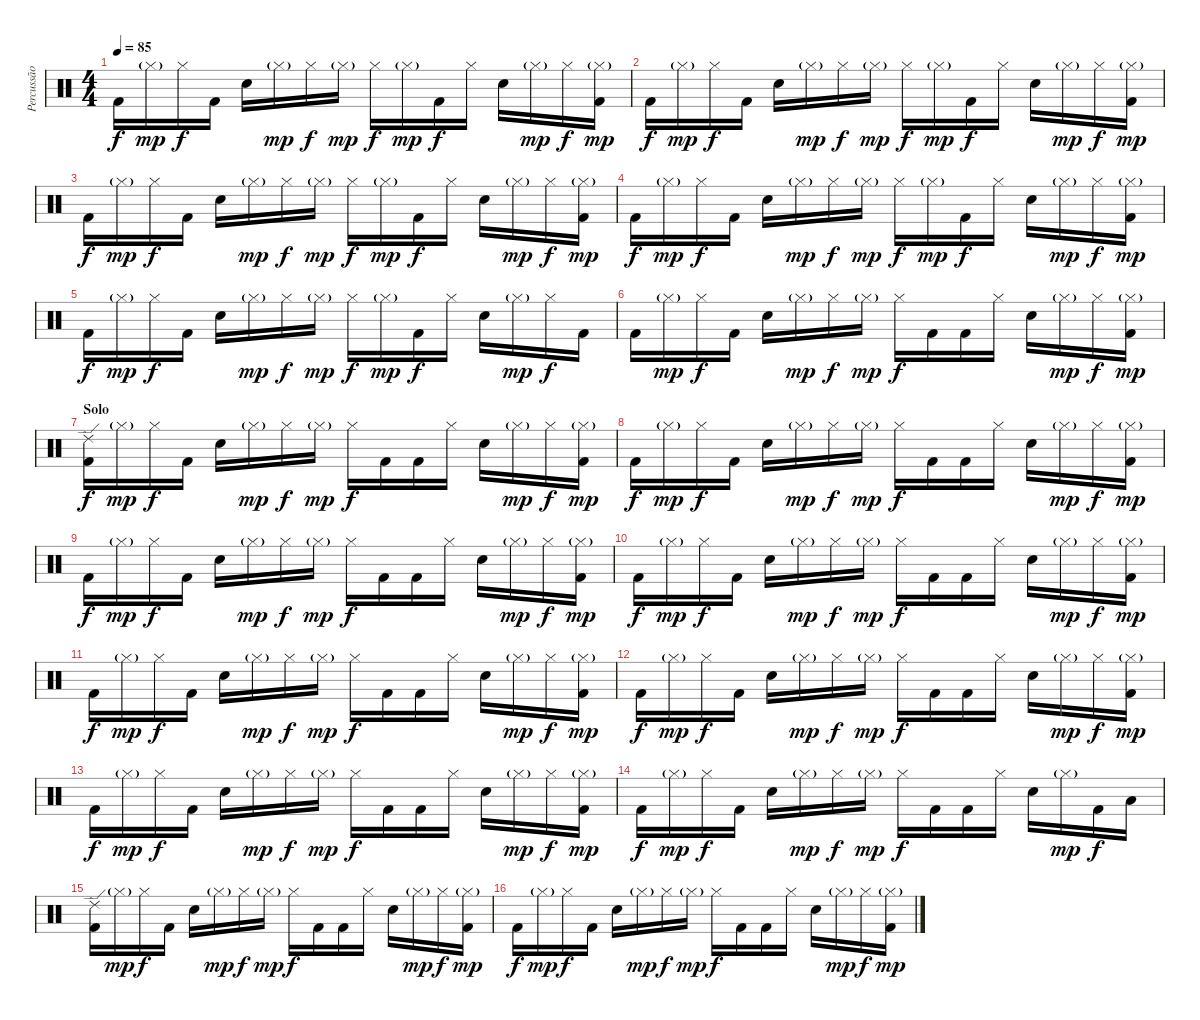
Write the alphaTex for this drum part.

\track ("Percussão" "Percussão") {instrument percussion}
\staff {score}
\articulation defaults
\ts (4 4)
\tempo 85
\clef neutral
\ks c "Kick (hit) 2".16{dy f} "Hi-Hat (closed)"{g}.16{dy mp} "Hi-Hat (closed)".16{dy f} "Kick (hit) 2".16 "Electric Snare (hit)".16 "Hi-Hat (closed)"{g}.16{dy mp} "Hi-Hat (closed)".16{dy f} "Hi-Hat (closed)"{g}.16{dy mp} "Hi-Hat (closed)".16{dy f} "Hi-Hat (closed)"{g}.16{dy mp} "Kick (hit) 2".16{dy f} "Hi-Hat (closed)".16 "Electric Snare (hit)".16 "Hi-Hat (closed)"{g}.16{dy mp} "Hi-Hat (closed)".16{dy f}
("Hi-Hat (closed)"{g} "Kick (hit) 2").16{dy mp} |
"Kick (hit) 2".16{dy f} "Hi-Hat (closed)"{g}.16{dy mp} "Hi-Hat (closed)".16{dy f} "Kick (hit) 2".16 "Electric Snare (hit)".16 "Hi-Hat (closed)"{g}.16{dy mp} "Hi-Hat (closed)".16{dy f} "Hi-Hat (closed)"{g}.16{dy mp} "Hi-Hat (closed)".16{dy f} "Hi-Hat (closed)"{g}.16{dy mp} "Kick (hit) 2".16{dy f} "Hi-Hat (closed)".16 "Electric Snare (hit)".16 "Hi-Hat (closed)"{g}.16{dy mp} "Hi-Hat (closed)".16{dy f} ("Hi-Hat (closed)"{g} "Kick (hit) 2").16{dy mp} |
"Kick (hit) 2".16{dy f} "Hi-Hat (closed)"{g}.16{dy mp} "Hi-Hat (closed)".16{dy f} "Kick (hit) 2".16 "Electric Snare (hit)".16 "Hi-Hat (closed)"{g}.16{dy mp} "Hi-Hat (closed)".16{dy f} "Hi-Hat (closed)"{g}.16{dy mp} "Hi-Hat (closed)".16{dy f} "Hi-Hat (closed)"{g}.16{dy mp} "Kick (hit) 2".16{dy f} "Hi-Hat (closed)".16 "Electric Snare (hit)".16 "Hi-Hat (closed)"{g}.16{dy mp} "Hi-Hat (closed)".16{dy f} ("Hi-Hat (closed)"{g} "Kick (hit) 2").16{dy mp} |
"Kick (hit) 2".16{dy f} "Hi-Hat (closed)"{g}.16{dy mp} "Hi-Hat (closed)".16{dy f} "Kick (hit) 2".16 "Electric Snare (hit)".16 "Hi-Hat (closed)"{g}.16{dy mp} "Hi-Hat (closed)".16{dy f} "Hi-Hat (closed)"{g}.16{dy mp} "Hi-Hat (closed)".16{dy f} "Hi-Hat (closed)"{g}.16{dy mp} "Kick (hit) 2".16{dy f} "Hi-Hat (closed)".16 "Electric Snare (hit)".16 "Hi-Hat (closed)"{g}.16{dy mp} "Hi-Hat (closed)".16{dy f} ("Hi-Hat (closed)"{g} "Kick (hit) 2").16{dy mp} |
"Kick (hit) 2".16{dy f} "Hi-Hat (closed)"{g}.16{dy mp} "Hi-Hat (closed)".16{dy f} "Kick (hit) 2".16 "Electric Snare (hit)".16 "Hi-Hat (closed)"{g}.16{dy mp} "Hi-Hat (closed)".16{dy f} "Hi-Hat (closed)"{g}.16{dy mp} "Hi-Hat (closed)".16{dy f} "Hi-Hat (closed)"{g}.16{dy mp} "Kick (hit) 2".16{dy f} "Hi-Hat (closed)".16 "Electric Snare (hit)".16 "Hi-Hat (closed)"{g}.16{dy mp} "Hi-Hat (closed)".16{dy f} "Kick (hit) 2".16 |
"Kick (hit) 2".16 "Hi-Hat (closed)"{g}.16{dy mp} "Hi-Hat (closed)".16{dy f} "Kick (hit) 2".16 "Electric Snare (hit)".16 "Hi-Hat (closed)"{g}.16{dy mp} "Hi-Hat (closed)".16{dy f} "Hi-Hat (closed)"{g}.16{dy mp} "Hi-Hat (closed)".16{dy f} "Kick (hit) 2".16 "Kick (hit) 2".16 "Hi-Hat (closed)".16 "Electric Snare (hit)".16 "Hi-Hat (closed)"{g}.16{dy mp} "Hi-Hat (closed)".16{dy f} ("Hi-Hat (closed)"{g} "Kick (hit) 2").16{dy mp} |
\section ("" "Solo")
("Ride (edge) 2" "Kick (hit) 2").16{dy f} "Hi-Hat (closed)"{g}.16{dy mp} "Hi-Hat (closed)".16{dy f} "Kick (hit) 2".16 "Electric Snare (hit)".16 "Hi-Hat (closed)"{g}.16{dy mp} "Hi-Hat (closed)".16{dy f} "Hi-Hat (closed)"{g}.16{dy mp} "Hi-Hat (closed)".16{dy f} "Kick (hit) 2".16 "Kick (hit) 2".16 "Hi-Hat (closed)".16 "Electric Snare (hit)".16 "Hi-Hat (closed)"{g}.16{dy mp} "Hi-Hat (closed)".16{dy f} ("Hi-Hat (closed)"{g} "Kick (hit) 2").16{dy mp} |
"Kick (hit) 2".16{dy f} "Hi-Hat (closed)"{g}.16{dy mp} "Hi-Hat (closed)".16{dy f} "Kick (hit) 2".16 "Electric Snare (hit)".16 "Hi-Hat (closed)"{g}.16{dy mp} "Hi-Hat (closed)".16{dy f} "Hi-Hat (closed)"{g}.16{dy mp} "Hi-Hat (closed)".16{dy f} "Kick (hit) 2".16 "Kick (hit) 2".16 "Hi-Hat (closed)".16 "Electric Snare (hit)".16 "Hi-Hat (closed)"{g}.16{dy mp} "Hi-Hat (closed)".16{dy f} ("Hi-Hat (closed)"{g} "Kick (hit) 2").16{dy mp} |
"Kick (hit) 2".16{dy f} "Hi-Hat (closed)"{g}.16{dy mp} "Hi-Hat (closed)".16{dy f} "Kick (hit) 2".16 "Electric Snare (hit)".16 "Hi-Hat (closed)"{g}.16{dy mp} "Hi-Hat (closed)".16{dy f} "Hi-Hat (closed)"{g}.16{dy mp} "Hi-Hat (closed)".16{dy f} "Kick (hit) 2".16 "Kick (hit) 2".16 "Hi-Hat (closed)".16 "Electric Snare (hit)".16 "Hi-Hat (closed)"{g}.16{dy mp} "Hi-Hat (closed)".16{dy f} ("Hi-Hat (closed)"{g} "Kick (hit) 2").16{dy mp} |
"Kick (hit) 2".16{dy f} "Hi-Hat (closed)"{g}.16{dy mp} "Hi-Hat (closed)".16{dy f} "Kick (hit) 2".16 "Electric Snare (hit)".16 "Hi-Hat (closed)"{g}.16{dy mp} "Hi-Hat (closed)".16{dy f} "Hi-Hat (closed)"{g}.16{dy mp} "Hi-Hat (closed)".16{dy f} "Kick (hit) 2".16 "Kick (hit) 2".16 "Hi-Hat (closed)".16 "Electric Snare (hit)".16 "Hi-Hat (closed)"{g}.16{dy mp} "Hi-Hat (closed)".16{dy f} ("Hi-Hat (closed)"{g} "Kick (hit) 2").16{dy mp} |
"Kick (hit) 2".16{dy f} "Hi-Hat (closed)"{g}.16{dy mp} "Hi-Hat (closed)".16{dy f} "Kick (hit) 2".16 "Electric Snare (hit)".16 "Hi-Hat (closed)"{g}.16{dy mp} "Hi-Hat (closed)".16{dy f} "Hi-Hat (closed)"{g}.16{dy mp} "Hi-Hat (closed)".16{dy f} "Kick (hit) 2".16 "Kick (hit) 2".16 "Hi-Hat (closed)".16 "Electric Snare (hit)".16 "Hi-Hat (closed)"{g}.16{dy mp} "Hi-Hat (closed)".16{dy f} ("Hi-Hat (closed)"{g} "Kick (hit) 2").16{dy mp} |
"Kick (hit) 2".16{dy f} "Hi-Hat (closed)"{g}.16{dy mp} "Hi-Hat (closed)".16{dy f} "Kick (hit) 2".16 "Electric Snare (hit)".16 "Hi-Hat (closed)"{g}.16{dy mp} "Hi-Hat (closed)".16{dy f} "Hi-Hat (closed)"{g}.16{dy mp} "Hi-Hat (closed)".16{dy f} "Kick (hit) 2".16 "Kick (hit) 2".16 "Hi-Hat (closed)".16 "Electric Snare (hit)".16 "Hi-Hat (closed)"{g}.16{dy mp} "Hi-Hat (closed)".16{dy f} ("Hi-Hat (closed)"{g} "Kick (hit) 2").16{dy mp} |
"Kick (hit) 2".16{dy f} "Hi-Hat (closed)"{g}.16{dy mp} "Hi-Hat (closed)".16{dy f} "Kick (hit) 2".16 "Electric Snare (hit)".16 "Hi-Hat (closed)"{g}.16{dy mp} "Hi-Hat (closed)".16{dy f} "Hi-Hat (closed)"{g}.16{dy mp} "Hi-Hat (closed)".16{dy f} "Kick (hit) 2".16 "Kick (hit) 2".16 "Hi-Hat (closed)".16 "Electric Snare (hit)".16 "Hi-Hat (closed)"{g}.16{dy mp} "Hi-Hat (closed)".16{dy f} ("Hi-Hat (closed)"{g} "Kick (hit) 2").16{dy mp} |
"Kick (hit) 2".16{dy f} "Hi-Hat (closed)"{g}.16{dy mp} "Hi-Hat (closed)".16{dy f} "Kick (hit) 2".16 "Electric Snare (hit)".16 "Hi-Hat (closed)"{g}.16{dy mp} "Hi-Hat (closed)".16{dy f} "Hi-Hat (closed)"{g}.16{dy mp} "Hi-Hat (closed)".16{dy f} "Kick (hit) 2".16 "Kick (hit) 2".16 "Hi-Hat (closed)".16 "Electric Snare (hit)".16 "Hi-Hat (closed)"{g}.16{dy mp} "Kick (hit) 2".16{dy f} "Low Tom (hit)".16 |
("Ride (edge) 2" "Kick (hit) 2").16 "Hi-Hat (closed)"{g}.16{dy mp} "Hi-Hat (closed)".16{dy f} "Kick (hit) 2".16 "Electric Snare (hit)".16 "Hi-Hat (closed)"{g}.16{dy mp} "Hi-Hat (closed)".16{dy f} "Hi-Hat (closed)"{g}.16{dy mp} "Hi-Hat (closed)".16{dy f} "Kick (hit) 2".16 "Kick (hit) 2".16 "Hi-Hat (closed)".16 "Electric Snare (hit)".16 "Hi-Hat (closed)"{g}.16{dy mp} "Hi-Hat (closed)".16{dy f} ("Hi-Hat (closed)"{g} "Kick (hit) 2").16{dy mp} |
"Kick (hit) 2".16{dy f} "Hi-Hat (closed)"{g}.16{dy mp} "Hi-Hat (closed)".16{dy f} "Kick (hit) 2".16 "Electric Snare (hit)".16 "Hi-Hat (closed)"{g}.16{dy mp} "Hi-Hat (closed)".16{dy f} "Hi-Hat (closed)"{g}.16{dy mp} "Hi-Hat (closed)".16{dy f} "Kick (hit) 2".16 "Kick (hit) 2".16 "Hi-Hat (closed)".16 "Electric Snare (hit)".16 "Hi-Hat (closed)"{g}.16{dy mp} "Hi-Hat (closed)".16{dy f} ("Hi-Hat (closed)"{g} "Kick (hit) 2").16{dy mp}
